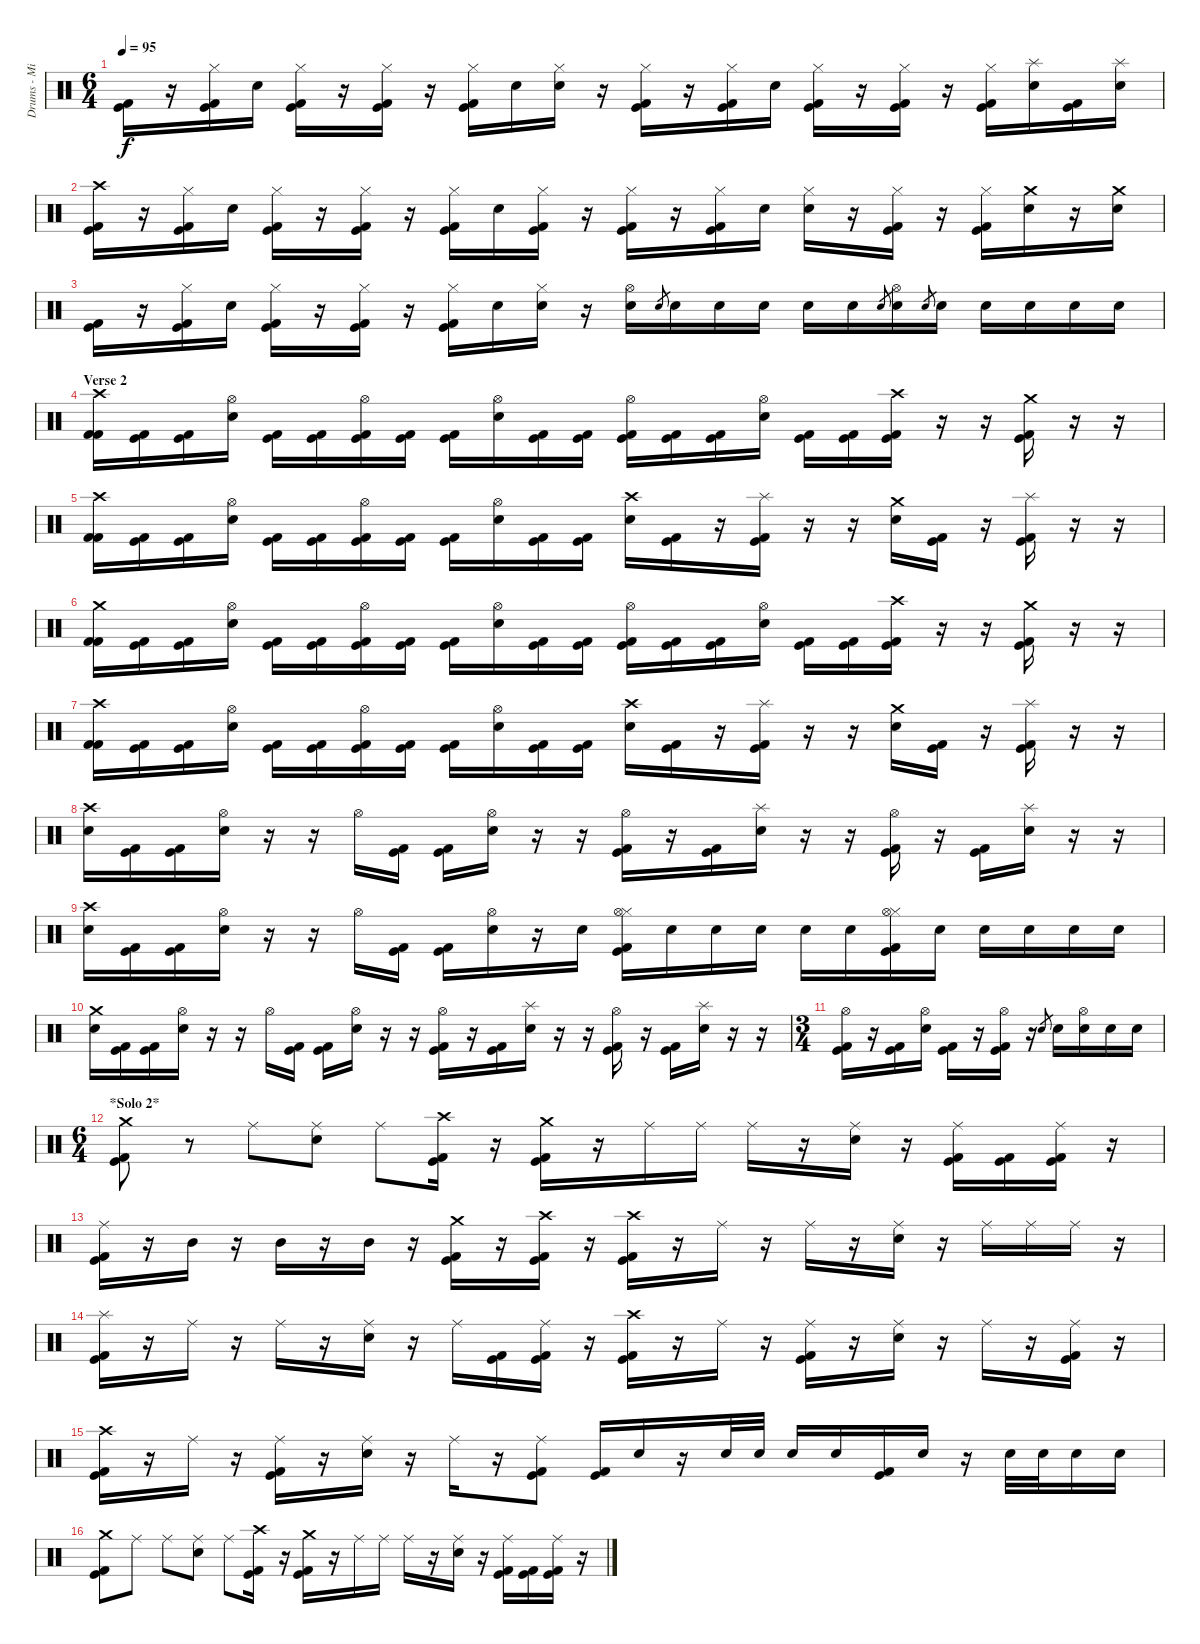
\track ("Drums - Mikkey Dee" "Drums - Mi") {instrument percussion}
\staff {score}
\articulation defaults
\ts (6 4)
\tempo 95
\clef neutral
\ks c
("Kick (hit)" "Kick (hit) 2").16{dy f} r.16 ("Hi-Hat (closed)" "Kick (hit)" "Kick (hit) 2").16 "Snare (hit) 2".16 ("Hi-Hat (closed)" "Kick (hit)" "Kick (hit) 2").16 r.16 ("Hi-Hat (closed)" "Kick (hit)" "Kick (hit) 2").16 r.16 ("Hi-Hat (closed)" "Kick (hit)" "Kick (hit) 2").16 "Snare (hit) 2".16 ("Hi-Hat (closed)" "Snare (hit) 2").16 r.16 ("Hi-Hat (closed)" "Kick (hit)" "Kick (hit) 2").16 r.16 ("Hi-Hat (closed)" "Kick (hit)" "Kick (hit) 2").16 "Snare (hit) 2".16 ("Hi-Hat (closed)" "Kick (hit)" "Kick (hit) 2").16 r.16 ("Hi-Hat (closed)" "Kick (hit)" "Kick (hit) 2").16 r.16 ("Hi-Hat (closed)" "Kick (hit)" "Kick (hit) 2").16 ("Splash (hit)" "Snare (hit) 2").16 ("Kick (hit)" "Kick (hit) 2").16 ("Splash (hit)" "Snare (hit) 2").16 |
("Crash high (hit)" "Kick (hit)" "Kick (hit) 2").16 r.16 ("Hi-Hat (closed)" "Kick (hit)" "Kick (hit) 2").16 "Snare (hit) 2".16 ("Hi-Hat (closed)" "Kick (hit)" "Kick (hit) 2").16 r.16 ("Hi-Hat (closed)" "Kick (hit)" "Kick (hit) 2").16 r.16 ("Hi-Hat (closed)" "Kick (hit)" "Kick (hit) 2").16 "Snare (hit) 2".16 ("Hi-Hat (closed)" "Kick (hit)" "Kick (hit) 2").16 r.16 ("Hi-Hat (closed)" "Kick (hit)" "Kick (hit) 2").16 r.16 ("Hi-Hat (closed)" "Kick (hit)" "Kick (hit) 2").16 "Snare (hit) 2".16 ("Hi-Hat (closed)" "Snare (hit) 2").16 r.16 ("Hi-Hat (closed)" "Kick (hit)" "Kick (hit) 2").16 r.16 ("Hi-Hat (closed)" "Kick (hit)" "Kick (hit) 2").16 ("Crash medium (hit)" "Snare (hit) 2").16 r.16 ("Crash medium (hit)" "Snare (hit) 2").16 |
("Kick (hit)" "Kick (hit) 2").16 r.16 ("Hi-Hat (closed)" "Kick (hit)" "Kick (hit) 2").16 "Snare (hit) 2".16 ("Hi-Hat (closed)" "Kick (hit)" "Kick (hit) 2").16 r.16 ("Hi-Hat (closed)" "Kick (hit)" "Kick (hit) 2").16 r.16 ("Hi-Hat (closed)" "Kick (hit)" "Kick (hit) 2").16 "Snare (hit) 2".16 ("Hi-Hat (closed)" "Snare (hit) 2").16 r.16 ("Hi-Hat (open)" "Snare (hit) 2").16 "Snare (hit) 2".8{gr} "Snare (hit) 2".16 "Snare (hit) 2".16 "Snare (hit) 2".16 "Snare (hit) 2".16 "Snare (hit) 2".16 "Snare (hit) 2".8{gr} ("Hi-Hat (open)" "Snare (hit) 2").16 "Snare (hit) 2".8{gr} "Snare (hit) 2".16 "Snare (hit) 2".16 "Snare (hit) 2".16 "Snare (hit) 2".16 "Snare (hit) 2".16 |
\section ("" "Verse 2")
("Crash high (hit)" "Kick (hit) 2" "Kick (hit) 2").16 ("Kick (hit)" "Kick (hit) 2").16 ("Kick (hit)" "Kick (hit) 2").16 ("Hi-Hat (open)" "Snare (hit) 2").16 ("Kick (hit)" "Kick (hit) 2").16 ("Kick (hit)" "Kick (hit) 2").16 ("Hi-Hat (open)" "Kick (hit)" "Kick (hit) 2").16 ("Kick (hit)" "Kick (hit) 2").16 ("Kick (hit)" "Kick (hit) 2").16 ("Hi-Hat (open)" "Snare (hit) 2").16 ("Kick (hit)" "Kick (hit) 2").16 ("Kick (hit)" "Kick (hit) 2").16 ("Hi-Hat (open)" "Kick (hit)" "Kick (hit) 2").16 ("Kick (hit)" "Kick (hit) 2").16 ("Kick (hit)" "Kick (hit) 2").16 ("Hi-Hat (open)" "Snare (hit) 2").16 ("Kick (hit)" "Kick (hit) 2").16 ("Kick (hit)" "Kick (hit) 2").16 ("Crash high (hit)" "Kick (hit)" "Kick (hit) 2").16 r.16 r.16 ("Crash medium (hit)" "Kick (hit)" "Kick (hit) 2").16 r.16 r.16 |
("Crash high (hit)" "Kick (hit) 2" "Kick (hit) 2").16 ("Kick (hit)" "Kick (hit) 2").16 ("Kick (hit)" "Kick (hit) 2").16 ("Hi-Hat (open)" "Snare (hit) 2").16 ("Kick (hit)" "Kick (hit) 2").16 ("Kick (hit)" "Kick (hit) 2").16 ("Hi-Hat (open)" "Kick (hit)" "Kick (hit) 2").16 ("Kick (hit)" "Kick (hit) 2").16 ("Kick (hit)" "Kick (hit) 2").16 ("Hi-Hat (open)" "Snare (hit) 2").16 ("Kick (hit)" "Kick (hit) 2").16 ("Kick (hit)" "Kick (hit) 2").16 ("Crash high (hit)" "Snare (hit) 2").16 ("Kick (hit)" "Kick (hit) 2").16 r.16 ("Splash (hit)" "Kick (hit)" "Kick (hit) 2").16 r.16 r.16 ("Crash medium (hit)" "Snare (hit) 2").16 ("Kick (hit)" "Kick (hit) 2").16 r.16 ("Splash (hit)" "Kick (hit)" "Kick (hit) 2").16 r.16 r.16 |
("Crash medium (hit)" "Kick (hit) 2" "Kick (hit) 2").16 ("Kick (hit)" "Kick (hit) 2").16 ("Kick (hit)" "Kick (hit) 2").16 ("Hi-Hat (open)" "Snare (hit) 2").16 ("Kick (hit)" "Kick (hit) 2").16 ("Kick (hit)" "Kick (hit) 2").16 ("Hi-Hat (open)" "Kick (hit)" "Kick (hit) 2").16 ("Kick (hit)" "Kick (hit) 2").16 ("Kick (hit)" "Kick (hit) 2").16 ("Hi-Hat (open)" "Snare (hit) 2").16 ("Kick (hit)" "Kick (hit) 2").16 ("Kick (hit)" "Kick (hit) 2").16 ("Hi-Hat (open)" "Kick (hit)" "Kick (hit) 2").16 ("Kick (hit)" "Kick (hit) 2").16 ("Kick (hit)" "Kick (hit) 2").16 ("Hi-Hat (open)" "Snare (hit) 2").16 ("Kick (hit)" "Kick (hit) 2").16 ("Kick (hit)" "Kick (hit) 2").16 ("Crash high (hit)" "Kick (hit)" "Kick (hit) 2").16 r.16 r.16 ("Crash medium (hit)" "Kick (hit)" "Kick (hit) 2").16 r.16 r.16 |
("Crash high (hit)" "Kick (hit) 2" "Kick (hit) 2").16 ("Kick (hit)" "Kick (hit) 2").16 ("Kick (hit)" "Kick (hit) 2").16 ("Hi-Hat (open)" "Snare (hit) 2").16 ("Kick (hit)" "Kick (hit) 2").16 ("Kick (hit)" "Kick (hit) 2").16 ("Hi-Hat (open)" "Kick (hit)" "Kick (hit) 2").16 ("Kick (hit)" "Kick (hit) 2").16 ("Kick (hit)" "Kick (hit) 2").16 ("Hi-Hat (open)" "Snare (hit) 2").16 ("Kick (hit)" "Kick (hit) 2").16 ("Kick (hit)" "Kick (hit) 2").16 ("Crash high (hit)" "Snare (hit) 2").16 ("Kick (hit)" "Kick (hit) 2").16 r.16 ("Splash (hit)" "Kick (hit)" "Kick (hit) 2").16 r.16 r.16 ("Crash medium (hit)" "Snare (hit) 2").16 ("Kick (hit)" "Kick (hit) 2").16 r.16 ("Splash (hit)" "Kick (hit)" "Kick (hit) 2").16 r.16 r.16 |
("Crash high (hit)" "Snare (hit) 2").16 ("Kick (hit)" "Kick (hit) 2").16 ("Kick (hit)" "Kick (hit) 2").16 ("Hi-Hat (open)" "Snare (hit) 2").16 r.16 r.16 "Hi-Hat (open)".16 ("Kick (hit)" "Kick (hit) 2").16 ("Kick (hit)" "Kick (hit) 2").16 ("Hi-Hat (open)" "Snare (hit) 2").16 r.16 r.16 ("Hi-Hat (open)" "Kick (hit)" "Kick (hit) 2").16 r.16 ("Kick (hit)" "Kick (hit) 2").16 ("Splash (hit)" "Snare (hit) 2").16 r.16 r.16 ("Hi-Hat (open)" "Kick (hit)" "Kick (hit) 2").16 r.16 ("Kick (hit)" "Kick (hit) 2").16 ("Splash (hit)" "Snare (hit) 2").16 r.16 r.16 |
("Crash high (hit)" "Snare (hit) 2").16 ("Kick (hit)" "Kick (hit) 2").16 ("Kick (hit)" "Kick (hit) 2").16 ("Hi-Hat (open)" "Snare (hit) 2").16 r.16 r.16 "Hi-Hat (open)".16 ("Kick (hit)" "Kick (hit) 2").16 ("Kick (hit)" "Kick (hit) 2").16 ("Hi-Hat (open)" "Snare (hit) 2").16 r.16 "Snare (hit) 2".16 ("Hi-Hat (closed)" "Hi-Hat (open)" "Kick (hit)" "Kick (hit) 2").16 "Snare (hit) 2".16 "Snare (hit) 2".16 "Snare (hit) 2".16 "Snare (hit) 2".16 "Snare (hit) 2".16 ("Hi-Hat (closed)" "Hi-Hat (open)" "Kick (hit)" "Kick (hit) 2").16 "Snare (hit) 2".16 "Snare (hit) 2".16 "Snare (hit) 2".16 "Snare (hit) 2".16 "Snare (hit) 2".16 |
("Crash medium (hit)" "Snare (hit) 2").16 ("Kick (hit)" "Kick (hit) 2").16 ("Kick (hit)" "Kick (hit) 2").16 ("Hi-Hat (open)" "Snare (hit) 2").16 r.16 r.16 "Hi-Hat (open)".16 ("Kick (hit)" "Kick (hit) 2").16 ("Kick (hit)" "Kick (hit) 2").16 ("Hi-Hat (open)" "Snare (hit) 2").16 r.16 r.16 ("Hi-Hat (open)" "Kick (hit)" "Kick (hit) 2").16 r.16 ("Kick (hit)" "Kick (hit) 2").16 ("Splash (hit)" "Snare (hit) 2").16 r.16 r.16 ("Hi-Hat (open)" "Kick (hit)" "Kick (hit) 2").16 r.16 ("Kick (hit)" "Kick (hit) 2").16 ("Splash (hit)" "Snare (hit) 2").16 r.16 r.16 |
\ts (3 4)
("Hi-Hat (open)" "Kick (hit)" "Kick (hit) 2").16 r.16 ("Kick (hit)" "Kick (hit) 2").16 ("Hi-Hat (open)" "Snare (hit) 2").16 ("Kick (hit)" "Kick (hit) 2").16 r.16 ("Hi-Hat (open)" "Kick (hit)" "Kick (hit) 2").16 r.16 "Snare (hit) 2".8{gr} "Snare (hit) 2".16 ("Hi-Hat (open)" "Snare (hit) 2").16 "Snare (hit) 2".16 "Snare (hit) 2".16 |
\ts (6 4)
\section ("" "*Solo 2*")
("Crash medium (hit)" "Kick (hit)" "Kick (hit) 2").8 r.8 "Ride (middle)".8 ("Ride (middle)" "Snare (hit) 2").8 "Ride (middle)".8 ("Crash high (hit)" "Kick (hit)" "Kick (hit) 2").16 r.16 ("Crash medium (hit)" "Kick (hit)" "Kick (hit) 2").16 r.16 "Ride (middle)".16 "Ride (middle)".16 "Ride (middle)".16 r.16 ("Ride (middle)" "Snare (hit) 2").16 r.16 ("Ride (middle)" "Kick (hit)" "Kick (hit) 2").16 ("Kick (hit)" "Kick (hit) 2").16 ("Ride (middle)" "Kick (hit)" "Kick (hit) 2").16 r.16 |
("Ride (middle)" "Kick (hit)" "Kick (hit) 2").16 r.16 "Mid Tom (hit)".16 r.16 "Mid Tom (hit)".16 r.16 "Mid Tom (hit)".16 r.16 ("Crash medium (hit)" "Kick (hit)" "Kick (hit) 2").16 r.16 ("Crash high (hit)" "Kick (hit)" "Kick (hit) 2").16 r.16 ("Crash high (hit)" "Kick (hit)" "Kick (hit) 2").16 r.16 "Ride (middle)".16 r.16 "Ride (middle)".16 r.16 ("Ride (middle)" "Snare (hit) 2").16 r.16 "Ride (middle)".16 "Ride (middle)".16 "Ride (middle)".16 r.16 |
("Splash (hit)" "Kick (hit)" "Kick (hit) 2").16 r.16 "Ride (middle)".16 r.16 "Ride (middle)".16 r.16 ("Ride (middle)" "Snare (hit) 2").16 r.16 "Ride (middle)".16 ("Kick (hit)" "Kick (hit) 2").16 ("Ride (middle)" "Kick (hit)" "Kick (hit) 2").16 r.16 ("Crash high (hit)" "Kick (hit)" "Kick (hit) 2").16 r.16 "Ride (middle)".16 r.16 ("Ride (middle)" "Kick (hit)" "Kick (hit) 2").16 r.16 ("Ride (middle)" "Snare (hit) 2").16 r.16 "Ride (middle)".16 r.16 ("Ride (middle)" "Kick (hit)" "Kick (hit) 2").16 r.16 |
("Crash high (hit)" "Kick (hit)" "Kick (hit) 2").16 r.16 "Ride (middle)".16 r.16 ("Ride (middle)" "Kick (hit)" "Kick (hit) 2").16 r.16 ("Ride (middle)" "Snare (hit) 2").16 r.16 "Ride (middle)".16 r.16 ("Ride (middle)" "Kick (hit)" "Kick (hit) 2").8 ("Kick (hit)" "Kick (hit) 2").16 "Snare (hit) 2".16 r.16 "Snare (hit) 2".32 "Snare (hit) 2".32 "Snare (hit) 2".16 "Snare (hit) 2".16 ("Kick (hit)" "Kick (hit) 2").16 "Snare (hit) 2".16 r.16 "Snare (hit) 2".32 "Snare (hit) 2".32 "Snare (hit) 2".16 "Snare (hit) 2".16 |
("Crash medium (hit)" "Kick (hit)" "Kick (hit) 2").8 "Ride (middle)".8 "Ride (middle)".8 ("Ride (middle)" "Snare (hit) 2").8 "Ride (middle)".8 ("Crash high (hit)" "Kick (hit)" "Kick (hit) 2").16 r.16 ("Crash medium (hit)" "Kick (hit)" "Kick (hit) 2").16 r.16 "Ride (middle)".16 "Ride (middle)".16 "Ride (middle)".16 r.16 ("Ride (middle)" "Snare (hit) 2").16 r.16 ("Ride (middle)" "Kick (hit)" "Kick (hit) 2").16 ("Kick (hit)" "Kick (hit) 2").16 ("Ride (middle)" "Kick (hit)" "Kick (hit) 2").16 r.16
